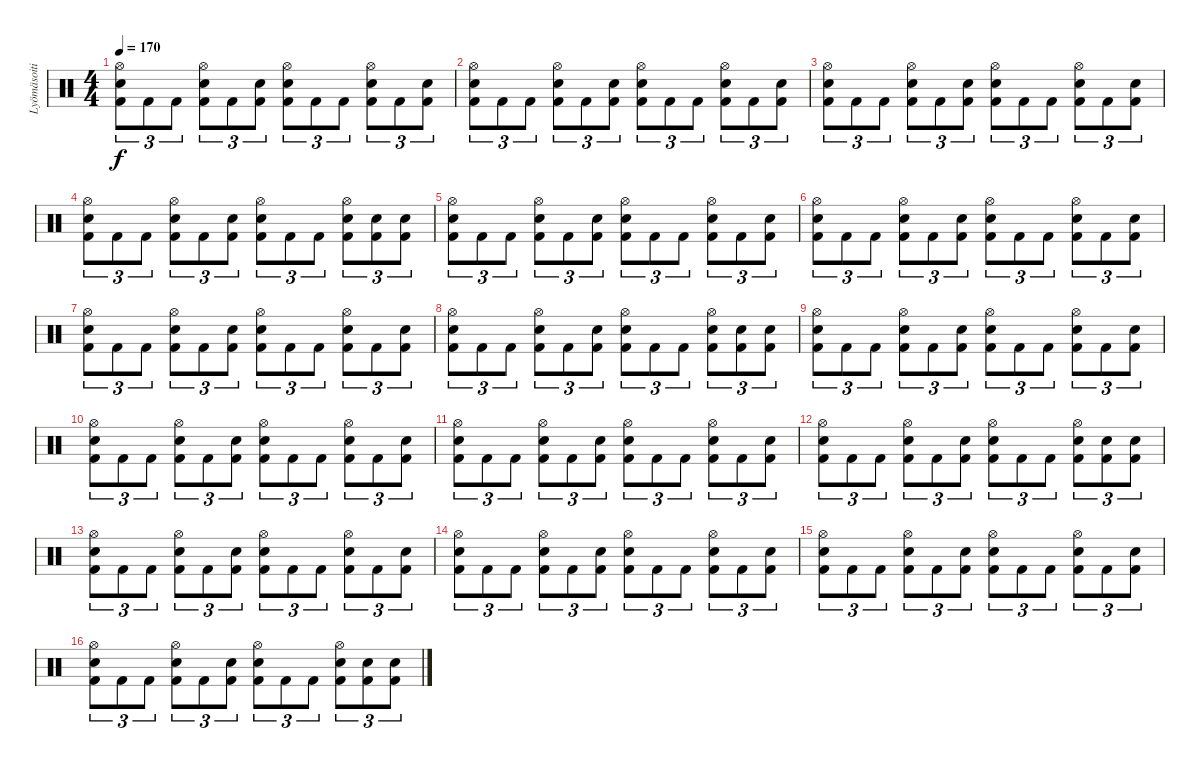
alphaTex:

\track ("Lyömäsoitin" "Lyömäsoiti") {instrument percussion}
\staff {score}
\articulation defaults
\ts (4 4)
\tempo 170
\clef neutral
\ks c
("Snare (hit) 2" "Kick (hit) 2" "Hi-Hat (open)").8{tu (3 2) dy f} "Kick (hit) 2".8{tu (3 2)} "Kick (hit) 2".8{tu (3 2)} ("Snare (hit) 2" "Kick (hit) 2" "Hi-Hat (open)").8{tu (3 2)} "Kick (hit) 2".8{tu (3 2)} ("Snare (hit) 2" "Kick (hit) 2").8{tu (3 2)} ("Snare (hit) 2" "Kick (hit) 2" "Hi-Hat (open)").8{tu (3 2)} "Kick (hit) 2".8{tu (3 2)} "Kick (hit) 2".8{tu (3 2)} ("Snare (hit) 2" "Kick (hit) 2" "Hi-Hat (open)").8{tu (3 2)} "Kick (hit) 2".8{tu (3 2)} ("Snare (hit) 2" "Kick (hit) 2").8{tu (3 2)} |
("Snare (hit) 2" "Kick (hit) 2" "Hi-Hat (open)").8{tu (3 2)} "Kick (hit) 2".8{tu (3 2)} "Kick (hit) 2".8{tu (3 2)} ("Snare (hit) 2" "Kick (hit) 2" "Hi-Hat (open)").8{tu (3 2)} "Kick (hit) 2".8{tu (3 2)} ("Snare (hit) 2" "Kick (hit) 2").8{tu (3 2)} ("Snare (hit) 2" "Kick (hit) 2" "Hi-Hat (open)").8{tu (3 2)} "Kick (hit) 2".8{tu (3 2)} "Kick (hit) 2".8{tu (3 2)} ("Snare (hit) 2" "Kick (hit) 2" "Hi-Hat (open)").8{tu (3 2)} "Kick (hit) 2".8{tu (3 2)} ("Snare (hit) 2" "Kick (hit) 2").8{tu (3 2)} |
("Snare (hit) 2" "Kick (hit) 2" "Hi-Hat (open)").8{tu (3 2)} "Kick (hit) 2".8{tu (3 2)} "Kick (hit) 2".8{tu (3 2)} ("Snare (hit) 2" "Kick (hit) 2" "Hi-Hat (open)").8{tu (3 2)} "Kick (hit) 2".8{tu (3 2)} ("Snare (hit) 2" "Kick (hit) 2").8{tu (3 2)} ("Snare (hit) 2" "Kick (hit) 2" "Hi-Hat (open)").8{tu (3 2)} "Kick (hit) 2".8{tu (3 2)} "Kick (hit) 2".8{tu (3 2)} ("Snare (hit) 2" "Kick (hit) 2" "Hi-Hat (open)").8{tu (3 2)} "Kick (hit) 2".8{tu (3 2)} ("Snare (hit) 2" "Kick (hit) 2").8{tu (3 2)} |
("Snare (hit) 2" "Kick (hit) 2" "Hi-Hat (open)").8{tu (3 2)} "Kick (hit) 2".8{tu (3 2)} "Kick (hit) 2".8{tu (3 2)} ("Snare (hit) 2" "Kick (hit) 2" "Hi-Hat (open)").8{tu (3 2)} "Kick (hit) 2".8{tu (3 2)} ("Snare (hit) 2" "Kick (hit) 2").8{tu (3 2)} ("Snare (hit) 2" "Kick (hit) 2" "Hi-Hat (open)").8{tu (3 2)} "Kick (hit) 2".8{tu (3 2)} "Kick (hit) 2".8{tu (3 2)} ("Snare (hit) 2" "Kick (hit) 2" "Hi-Hat (open)").8{tu (3 2)} ("Snare (hit) 2" "Kick (hit) 2").8{tu (3 2)} ("Snare (hit) 2" "Kick (hit) 2").8{tu (3 2)} |
("Snare (hit) 2" "Kick (hit) 2" "Hi-Hat (open)").8{tu (3 2)} "Kick (hit) 2".8{tu (3 2)} "Kick (hit) 2".8{tu (3 2)} ("Snare (hit) 2" "Kick (hit) 2" "Hi-Hat (open)").8{tu (3 2)} "Kick (hit) 2".8{tu (3 2)} ("Snare (hit) 2" "Kick (hit) 2").8{tu (3 2)} ("Snare (hit) 2" "Kick (hit) 2" "Hi-Hat (open)").8{tu (3 2)} "Kick (hit) 2".8{tu (3 2)} "Kick (hit) 2".8{tu (3 2)} ("Snare (hit) 2" "Kick (hit) 2" "Hi-Hat (open)").8{tu (3 2)} "Kick (hit) 2".8{tu (3 2)} ("Snare (hit) 2" "Kick (hit) 2").8{tu (3 2)} |
("Snare (hit) 2" "Kick (hit) 2" "Hi-Hat (open)").8{tu (3 2)} "Kick (hit) 2".8{tu (3 2)} "Kick (hit) 2".8{tu (3 2)} ("Snare (hit) 2" "Kick (hit) 2" "Hi-Hat (open)").8{tu (3 2)} "Kick (hit) 2".8{tu (3 2)} ("Snare (hit) 2" "Kick (hit) 2").8{tu (3 2)} ("Snare (hit) 2" "Kick (hit) 2" "Hi-Hat (open)").8{tu (3 2)} "Kick (hit) 2".8{tu (3 2)} "Kick (hit) 2".8{tu (3 2)} ("Snare (hit) 2" "Kick (hit) 2" "Hi-Hat (open)").8{tu (3 2)} "Kick (hit) 2".8{tu (3 2)} ("Snare (hit) 2" "Kick (hit) 2").8{tu (3 2)} |
("Snare (hit) 2" "Kick (hit) 2" "Hi-Hat (open)").8{tu (3 2)} "Kick (hit) 2".8{tu (3 2)} "Kick (hit) 2".8{tu (3 2)} ("Snare (hit) 2" "Kick (hit) 2" "Hi-Hat (open)").8{tu (3 2)} "Kick (hit) 2".8{tu (3 2)} ("Snare (hit) 2" "Kick (hit) 2").8{tu (3 2)} ("Snare (hit) 2" "Kick (hit) 2" "Hi-Hat (open)").8{tu (3 2)} "Kick (hit) 2".8{tu (3 2)} "Kick (hit) 2".8{tu (3 2)} ("Snare (hit) 2" "Kick (hit) 2" "Hi-Hat (open)").8{tu (3 2)} "Kick (hit) 2".8{tu (3 2)} ("Snare (hit) 2" "Kick (hit) 2").8{tu (3 2)} |
("Snare (hit) 2" "Kick (hit) 2" "Hi-Hat (open)").8{tu (3 2)} "Kick (hit) 2".8{tu (3 2)} "Kick (hit) 2".8{tu (3 2)} ("Snare (hit) 2" "Kick (hit) 2" "Hi-Hat (open)").8{tu (3 2)} "Kick (hit) 2".8{tu (3 2)} ("Snare (hit) 2" "Kick (hit) 2").8{tu (3 2)} ("Snare (hit) 2" "Kick (hit) 2" "Hi-Hat (open)").8{tu (3 2)} "Kick (hit) 2".8{tu (3 2)} "Kick (hit) 2".8{tu (3 2)} ("Snare (hit) 2" "Kick (hit) 2" "Hi-Hat (open)").8{tu (3 2)} ("Snare (hit) 2" "Kick (hit) 2").8{tu (3 2)} ("Snare (hit) 2" "Kick (hit) 2").8{tu (3 2)} |
("Snare (hit) 2" "Kick (hit) 2" "Hi-Hat (open)").8{tu (3 2)} "Kick (hit) 2".8{tu (3 2)} "Kick (hit) 2".8{tu (3 2)} ("Snare (hit) 2" "Kick (hit) 2" "Hi-Hat (open)").8{tu (3 2)} "Kick (hit) 2".8{tu (3 2)} ("Snare (hit) 2" "Kick (hit) 2").8{tu (3 2)} ("Snare (hit) 2" "Kick (hit) 2" "Hi-Hat (open)").8{tu (3 2)} "Kick (hit) 2".8{tu (3 2)} "Kick (hit) 2".8{tu (3 2)} ("Snare (hit) 2" "Kick (hit) 2" "Hi-Hat (open)").8{tu (3 2)} "Kick (hit) 2".8{tu (3 2)} ("Snare (hit) 2" "Kick (hit) 2").8{tu (3 2)} |
("Snare (hit) 2" "Kick (hit) 2" "Hi-Hat (open)").8{tu (3 2)} "Kick (hit) 2".8{tu (3 2)} "Kick (hit) 2".8{tu (3 2)} ("Snare (hit) 2" "Kick (hit) 2" "Hi-Hat (open)").8{tu (3 2)} "Kick (hit) 2".8{tu (3 2)} ("Snare (hit) 2" "Kick (hit) 2").8{tu (3 2)} ("Snare (hit) 2" "Kick (hit) 2" "Hi-Hat (open)").8{tu (3 2)} "Kick (hit) 2".8{tu (3 2)} "Kick (hit) 2".8{tu (3 2)} ("Snare (hit) 2" "Kick (hit) 2" "Hi-Hat (open)").8{tu (3 2)} "Kick (hit) 2".8{tu (3 2)} ("Snare (hit) 2" "Kick (hit) 2").8{tu (3 2)} |
("Snare (hit) 2" "Kick (hit) 2" "Hi-Hat (open)").8{tu (3 2)} "Kick (hit) 2".8{tu (3 2)} "Kick (hit) 2".8{tu (3 2)} ("Snare (hit) 2" "Kick (hit) 2" "Hi-Hat (open)").8{tu (3 2)} "Kick (hit) 2".8{tu (3 2)} ("Snare (hit) 2" "Kick (hit) 2").8{tu (3 2)} ("Snare (hit) 2" "Kick (hit) 2" "Hi-Hat (open)").8{tu (3 2)} "Kick (hit) 2".8{tu (3 2)} "Kick (hit) 2".8{tu (3 2)} ("Snare (hit) 2" "Kick (hit) 2" "Hi-Hat (open)").8{tu (3 2)} "Kick (hit) 2".8{tu (3 2)} ("Snare (hit) 2" "Kick (hit) 2").8{tu (3 2)} |
("Snare (hit) 2" "Kick (hit) 2" "Hi-Hat (open)").8{tu (3 2)} "Kick (hit) 2".8{tu (3 2)} "Kick (hit) 2".8{tu (3 2)} ("Snare (hit) 2" "Kick (hit) 2" "Hi-Hat (open)").8{tu (3 2)} "Kick (hit) 2".8{tu (3 2)} ("Snare (hit) 2" "Kick (hit) 2").8{tu (3 2)} ("Snare (hit) 2" "Kick (hit) 2" "Hi-Hat (open)").8{tu (3 2)} "Kick (hit) 2".8{tu (3 2)} "Kick (hit) 2".8{tu (3 2)} ("Snare (hit) 2" "Kick (hit) 2" "Hi-Hat (open)").8{tu (3 2)} ("Snare (hit) 2" "Kick (hit) 2").8{tu (3 2)} ("Snare (hit) 2" "Kick (hit) 2").8{tu (3 2)} |
("Snare (hit) 2" "Kick (hit) 2" "Hi-Hat (open)").8{tu (3 2)} "Kick (hit) 2".8{tu (3 2)} "Kick (hit) 2".8{tu (3 2)} ("Snare (hit) 2" "Kick (hit) 2" "Hi-Hat (open)").8{tu (3 2)} "Kick (hit) 2".8{tu (3 2)} ("Snare (hit) 2" "Kick (hit) 2").8{tu (3 2)} ("Snare (hit) 2" "Kick (hit) 2" "Hi-Hat (open)").8{tu (3 2)} "Kick (hit) 2".8{tu (3 2)} "Kick (hit) 2".8{tu (3 2)} ("Snare (hit) 2" "Kick (hit) 2" "Hi-Hat (open)").8{tu (3 2)} "Kick (hit) 2".8{tu (3 2)} ("Snare (hit) 2" "Kick (hit) 2").8{tu (3 2)} |
("Snare (hit) 2" "Kick (hit) 2" "Hi-Hat (open)").8{tu (3 2)} "Kick (hit) 2".8{tu (3 2)} "Kick (hit) 2".8{tu (3 2)} ("Snare (hit) 2" "Kick (hit) 2" "Hi-Hat (open)").8{tu (3 2)} "Kick (hit) 2".8{tu (3 2)} ("Snare (hit) 2" "Kick (hit) 2").8{tu (3 2)} ("Snare (hit) 2" "Kick (hit) 2" "Hi-Hat (open)").8{tu (3 2)} "Kick (hit) 2".8{tu (3 2)} "Kick (hit) 2".8{tu (3 2)} ("Snare (hit) 2" "Kick (hit) 2" "Hi-Hat (open)").8{tu (3 2)} "Kick (hit) 2".8{tu (3 2)} ("Snare (hit) 2" "Kick (hit) 2").8{tu (3 2)} |
("Snare (hit) 2" "Kick (hit) 2" "Hi-Hat (open)").8{tu (3 2)} "Kick (hit) 2".8{tu (3 2)} "Kick (hit) 2".8{tu (3 2)} ("Snare (hit) 2" "Kick (hit) 2" "Hi-Hat (open)").8{tu (3 2)} "Kick (hit) 2".8{tu (3 2)} ("Snare (hit) 2" "Kick (hit) 2").8{tu (3 2)} ("Snare (hit) 2" "Kick (hit) 2" "Hi-Hat (open)").8{tu (3 2)} "Kick (hit) 2".8{tu (3 2)} "Kick (hit) 2".8{tu (3 2)} ("Snare (hit) 2" "Kick (hit) 2" "Hi-Hat (open)").8{tu (3 2)} "Kick (hit) 2".8{tu (3 2)} ("Snare (hit) 2" "Kick (hit) 2").8{tu (3 2)} |
("Snare (hit) 2" "Kick (hit) 2" "Hi-Hat (open)").8{tu (3 2)} "Kick (hit) 2".8{tu (3 2)} "Kick (hit) 2".8{tu (3 2)} ("Snare (hit) 2" "Kick (hit) 2" "Hi-Hat (open)").8{tu (3 2)} "Kick (hit) 2".8{tu (3 2)} ("Snare (hit) 2" "Kick (hit) 2").8{tu (3 2)} ("Snare (hit) 2" "Kick (hit) 2" "Hi-Hat (open)").8{tu (3 2)} "Kick (hit) 2".8{tu (3 2)} "Kick (hit) 2".8{tu (3 2)} ("Snare (hit) 2" "Kick (hit) 2" "Hi-Hat (open)").8{tu (3 2)} ("Snare (hit) 2" "Kick (hit) 2").8{tu (3 2)} ("Snare (hit) 2" "Kick (hit) 2").8{tu (3 2)}
